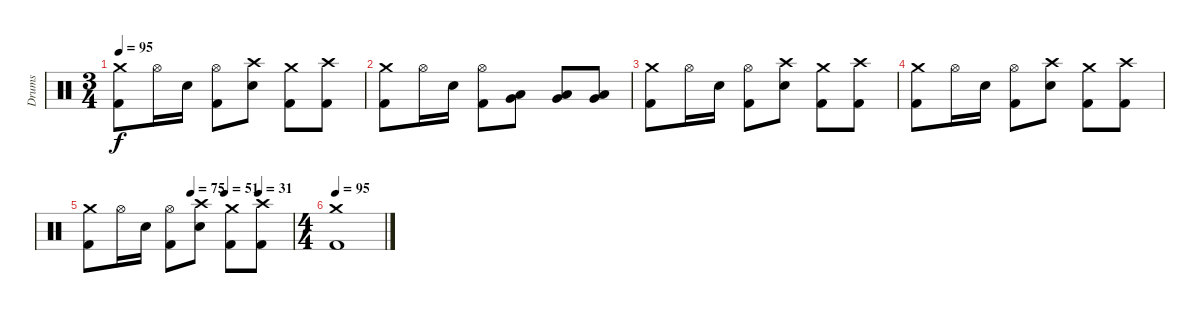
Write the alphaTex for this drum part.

\track ("Drums" "Drums") {instrument percussion}
\staff {score}
\articulation defaults
\ts (3 4)
\tempo 95
\clef neutral
\ks c
("Crash medium (hit)" "Kick (hit) 2").8{dy f} "Hi-Hat (open)".16 "Electric Snare (hit)".16 ("Hi-Hat (open)" "Kick (hit) 2").8 ("Crash high (hit)" "Electric Snare (hit)").8 ("Crash medium (hit)" "Kick (hit) 2").8 ("Crash high (hit)" "Kick (hit) 2").8 |
("Crash medium (hit)" "Kick (hit) 2").8 "Hi-Hat (open)".16 "Electric Snare (hit)".16 ("Hi-Hat (open)" "Kick (hit) 2").8 ("Very Low Tom (hit)" "Low Tom (hit)").8 ("Very Low Tom (hit)" "Low Tom (hit)").8 ("Very Low Tom (hit)" "Low Tom (hit)").8 |
("Crash medium (hit)" "Kick (hit) 2").8 "Hi-Hat (open)".16 "Electric Snare (hit)".16 ("Hi-Hat (open)" "Kick (hit) 2").8 ("Crash high (hit)" "Electric Snare (hit)").8 ("Crash medium (hit)" "Kick (hit) 2").8 ("Crash high (hit)" "Kick (hit) 2").8 |
("Crash medium (hit)" "Kick (hit) 2").8 "Hi-Hat (open)".16 "Electric Snare (hit)".16 ("Hi-Hat (open)" "Kick (hit) 2").8 ("Crash high (hit)" "Electric Snare (hit)").8 ("Crash medium (hit)" "Kick (hit) 2").8 ("Crash high (hit)" "Kick (hit) 2").8 |
\tempo (75 0.5)
\tempo (51 0.6666666666666666)
\tempo (31 0.8333333333333334)
("Crash medium (hit)" "Kick (hit) 2").8 "Hi-Hat (open)".16 "Electric Snare (hit)".16 ("Hi-Hat (open)" "Kick (hit) 2").8 ("Crash high (hit)" "Electric Snare (hit)").8 ("Crash medium (hit)" "Kick (hit) 2").8 ("Crash high (hit)" "Kick (hit) 2").8 |
\ts (4 4)
\tempo 95
("Crash medium (hit)" "Kick (hit) 2").1
